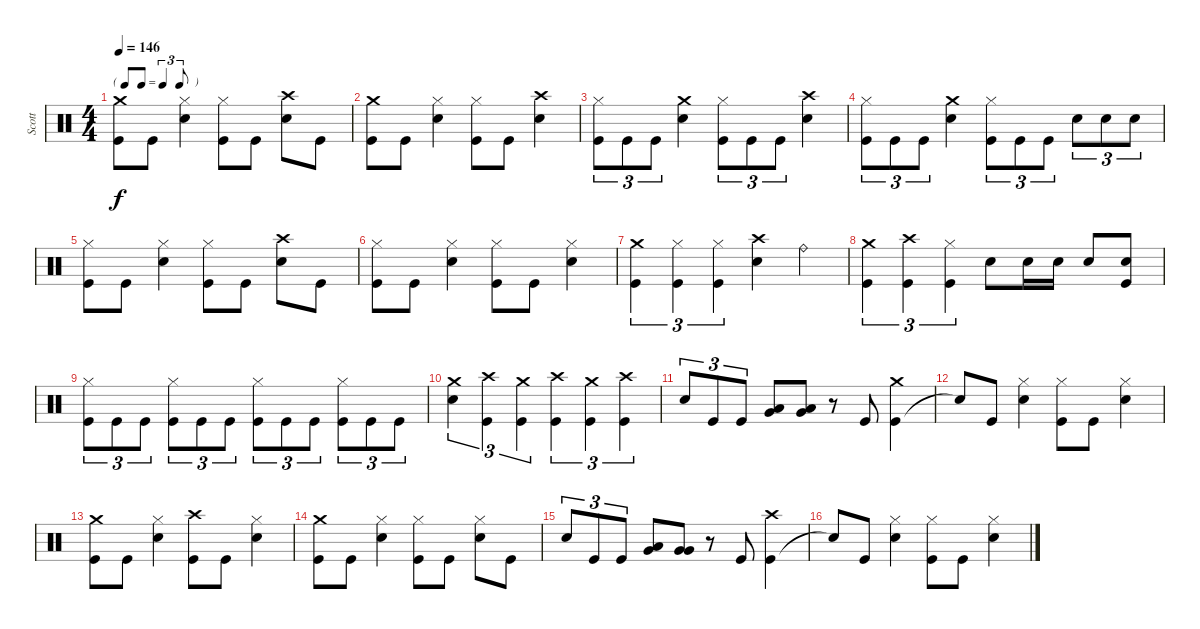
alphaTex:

\track ("Scott" "Scott") {instrument percussion}
\staff {score}
\articulation defaults
\ts (4 4)
\tf triplet8th
\tempo 146
\clef neutral
\ks c
("Kick (hit)" "Crash medium (hit)").8{dy f} "Kick (hit)".8 ("Snare (hit) 2" "Hi-Hat (closed)").4 ("Kick (hit)" "Hi-Hat (closed)").8 "Kick (hit)".8 ("Snare (hit) 2" "Crash high (hit)").8 "Kick (hit)".8 |
("Kick (hit)" "Crash medium (hit)").8 "Kick (hit)".8 ("Snare (hit) 2" "Hi-Hat (closed)").4 ("Kick (hit)" "Hi-Hat (closed)").8 "Kick (hit)".8 ("Snare (hit) 2" "Crash high (hit)").4 |
("Kick (hit)" "Hi-Hat (closed)").8{tu (3 2)} "Kick (hit)".8{tu (3 2)} "Kick (hit)".8{tu (3 2)} ("Snare (hit) 2" "Crash medium (hit)").4 ("Kick (hit)" "Hi-Hat (closed)").8{tu (3 2)} "Kick (hit)".8{tu (3 2)} "Kick (hit)".8{tu (3 2)} ("Snare (hit) 2" "Crash high (hit)").4 |
("Kick (hit)" "Hi-Hat (closed)").8{tu (3 2)} "Kick (hit)".8{tu (3 2)} "Kick (hit)".8{tu (3 2)} ("Snare (hit) 2" "Crash medium (hit)").4 ("Kick (hit)" "Hi-Hat (closed)").8{tu (3 2)} "Kick (hit)".8{tu (3 2)} "Kick (hit)".8{tu (3 2)} "Snare (hit) 2".8{tu (3 2)} "Snare (hit) 2".8{tu (3 2)} "Snare (hit) 2".8{tu (3 2)} |
("Kick (hit)" "Hi-Hat (closed)").8 "Kick (hit)".8 ("Snare (hit) 2" "Hi-Hat (closed)").4 ("Kick (hit)" "Hi-Hat (closed)").8 "Kick (hit)".8 ("Snare (hit) 2" "Crash high (hit)").8 "Kick (hit)".8 |
("Kick (hit)" "Hi-Hat (closed)").8 "Kick (hit)".8 ("Snare (hit) 2" "Hi-Hat (closed)").4 ("Kick (hit)" "Hi-Hat (closed)").8 "Kick (hit)".8 ("Snare (hit) 2" "Hi-Hat (closed)").4 |
("Kick (hit)" "Crash medium (hit)").4{tu (3 2)} ("Kick (hit)" "Hi-Hat (closed)").4{tu (3 2)} ("Kick (hit)" "Hi-Hat (closed)").4{tu (3 2)} ("Snare (hit) 2" "Crash high (hit)").4 "Ride (bell)".4 |
("Kick (hit)" "Crash medium (hit)").4{tu (3 2)} ("Kick (hit)" "Crash high (hit)").4{tu (3 2)} ("Kick (hit)" "Hi-Hat (closed)").4{tu (3 2)} "Snare (hit) 2".8 "Snare (hit) 2".16 "Snare (hit) 2".16 "Snare (hit) 2".8 ("Kick (hit)" "Snare (hit) 2").8 |
("Kick (hit)" "Hi-Hat (closed)").8{tu (3 2)} "Kick (hit)".8{tu (3 2)} "Kick (hit)".8{tu (3 2)} ("Kick (hit)" "Hi-Hat (closed)").8{tu (3 2)} "Kick (hit)".8{tu (3 2)} "Kick (hit)".8{tu (3 2)} ("Kick (hit)" "Hi-Hat (closed)").8{tu (3 2)} "Kick (hit)".8{tu (3 2)} "Kick (hit)".8{tu (3 2)} ("Kick (hit)" "Hi-Hat (closed)").8{tu (3 2)} "Kick (hit)".8{tu (3 2)} "Kick (hit)".8{tu (3 2)} |
("Snare (hit) 2" "Crash medium (hit)").4{tu (3 2)} ("Kick (hit)" "Crash high (hit)").4{tu (3 2)} ("Kick (hit)" "Crash medium (hit)").4{tu (3 2)} ("Kick (hit)" "Crash high (hit)").4{tu (3 2)} ("Kick (hit)" "Crash medium (hit)").4{tu (3 2)} ("Kick (hit)" "Crash high (hit)").4{tu (3 2)} |
"Snare (hit) 2".8{tu (3 2)} "Kick (hit)".8{tu (3 2)} "Kick (hit)".8{tu (3 2)} ("Low Tom (hit)" "Very Low Tom (hit)").8 ("Low Tom (hit)" "Very Low Tom (hit)").8 r.8 "Kick (hit)".8 ("Kick (hit)" "Crash medium (hit)").4 |
"Snare (hit)"{t}.8 "Kick (hit)".8 ("Snare (hit) 2" "Hi-Hat (closed)").4 ("Kick (hit)" "Hi-Hat (closed)").8 "Kick (hit)".8 ("Snare (hit) 2" "Hi-Hat (closed)").4 |
("Kick (hit)" "Crash medium (hit)").8 "Kick (hit)".8 ("Snare (hit) 2" "Hi-Hat (closed)").4 ("Kick (hit)" "Crash high (hit)").8 "Kick (hit)".8 ("Snare (hit) 2" "Hi-Hat (closed)").4 |
("Kick (hit)" "Crash medium (hit)").8 "Kick (hit)".8 ("Snare (hit) 2" "Hi-Hat (closed)").4 ("Kick (hit)" "Hi-Hat (closed)").8 "Kick (hit)".8 ("Snare (hit) 2" "Hi-Hat (closed)").8 "Kick (hit)".8 |
"Snare (hit) 2".8{tu (3 2)} "Kick (hit)".8{tu (3 2)} "Kick (hit)".8{tu (3 2)} ("Low Tom (hit)" "Very Low Tom (hit)").8 ("Very Low Tom (hit)" "Very Low Tom (hit)").8 r.8 "Kick (hit)".8 ("Kick (hit)" "Crash high (hit)").4 |
"Snare (hit)"{t}.8 "Kick (hit)".8 ("Snare (hit) 2" "Hi-Hat (closed)").4 ("Kick (hit)" "Hi-Hat (closed)").8 "Kick (hit)".8 ("Snare (hit) 2" "Hi-Hat (closed)").4
